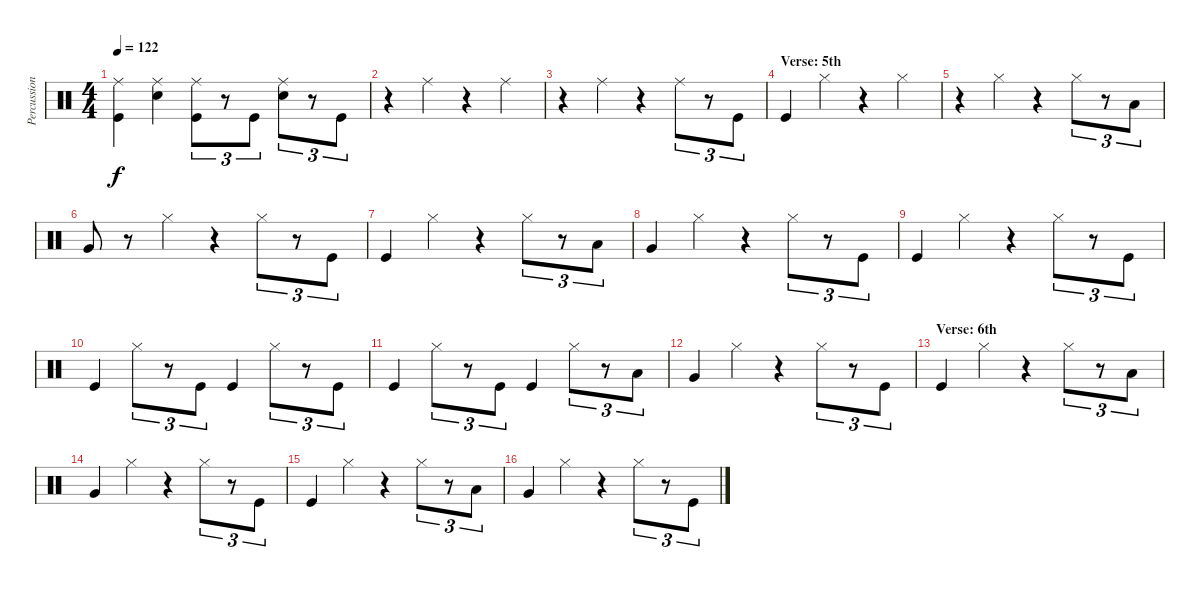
\track ("Percussion" "Percussion") {instrument percussion}
\staff {score}
\articulation defaults
\ts (4 4)
\tempo 122
\clef neutral
\ks c
("Ride (middle)" "Kick (hit)").4{dy f} ("Ride (middle)" "Electric Snare (hit)").4 ("Ride (middle)" "Kick (hit)").8{tu (3 2)} r.8{tu (3 2)} "Kick (hit)".8{tu (3 2)} ("Ride (middle)" "Electric Snare (hit)").8{tu (3 2)} r.8{tu (3 2)} "Kick (hit)".8{tu (3 2)} |
r.4 "Ride (middle)".4{volume 10} r.4 "Ride (middle)".4 |
r.4 "Ride (middle)".4 r.4 "Ride (middle)".8{tu (3 2)} r.8{tu (3 2)} "Kick (hit)".8{tu (3 2)} |
\section ("" "Verse: 5th")
"Kick (hit)".4{volume 10} "Hi-Hat (closed)".4 r.4 "Hi-Hat (closed)".4 |
r.4 "Hi-Hat (closed)".4 r.4 "Hi-Hat (closed)".8{tu (3 2)} r.8{tu (3 2)} "Low Tom (hit)".8{tu (3 2)} |
"Very Low Tom (hit)".8 r.8 "Hi-Hat (closed)".4 r.4 "Hi-Hat (closed)".8{tu (3 2)} r.8{tu (3 2)} "Kick (hit)".8{tu (3 2)} |
"Kick (hit)".4 "Hi-Hat (closed)".4 r.4 "Hi-Hat (closed)".8{tu (3 2)} r.8{tu (3 2)} "Low Tom (hit)".8{tu (3 2)} |
"Very Low Tom (hit)".4 "Hi-Hat (closed)".4 r.4 "Hi-Hat (closed)".8{tu (3 2)} r.8{tu (3 2)} "Kick (hit)".8{tu (3 2)} |
"Kick (hit)".4 "Hi-Hat (closed)".4 r.4 "Hi-Hat (closed)".8{tu (3 2)} r.8{tu (3 2)} "Kick (hit)".8{tu (3 2)} |
"Kick (hit)".4 "Hi-Hat (closed)".8{tu (3 2)} r.8{tu (3 2)} "Kick (hit)".8{tu (3 2)} "Kick (hit)".4 "Hi-Hat (closed)".8{tu (3 2)} r.8{tu (3 2)} "Kick (hit)".8{tu (3 2)} |
"Kick (hit)".4 "Hi-Hat (closed)".8{tu (3 2)} r.8{tu (3 2)} "Kick (hit)".8{tu (3 2)} "Kick (hit)".4 "Hi-Hat (closed)".8{tu (3 2)} r.8{tu (3 2)} "Low Tom (hit)".8{tu (3 2)} |
"Very Low Tom (hit)".4 "Hi-Hat (closed)".4 r.4 "Hi-Hat (closed)".8{tu (3 2)} r.8{tu (3 2)} "Kick (hit)".8{tu (3 2)} |
\section ("" "Verse: 6th")
"Kick (hit)".4 "Hi-Hat (closed)".4 r.4 "Hi-Hat (closed)".8{tu (3 2)} r.8{tu (3 2)} "Low Tom (hit)".8{tu (3 2)} |
"Very Low Tom (hit)".4 "Hi-Hat (closed)".4 r.4 "Hi-Hat (closed)".8{tu (3 2)} r.8{tu (3 2)} "Kick (hit)".8{tu (3 2)} |
"Kick (hit)".4 "Hi-Hat (closed)".4 r.4 "Hi-Hat (closed)".8{tu (3 2)} r.8{tu (3 2)} "Low Tom (hit)".8{tu (3 2)} |
"Very Low Tom (hit)".4 "Hi-Hat (closed)".4 r.4 "Hi-Hat (closed)".8{tu (3 2)} r.8{tu (3 2)} "Kick (hit)".8{tu (3 2)}
